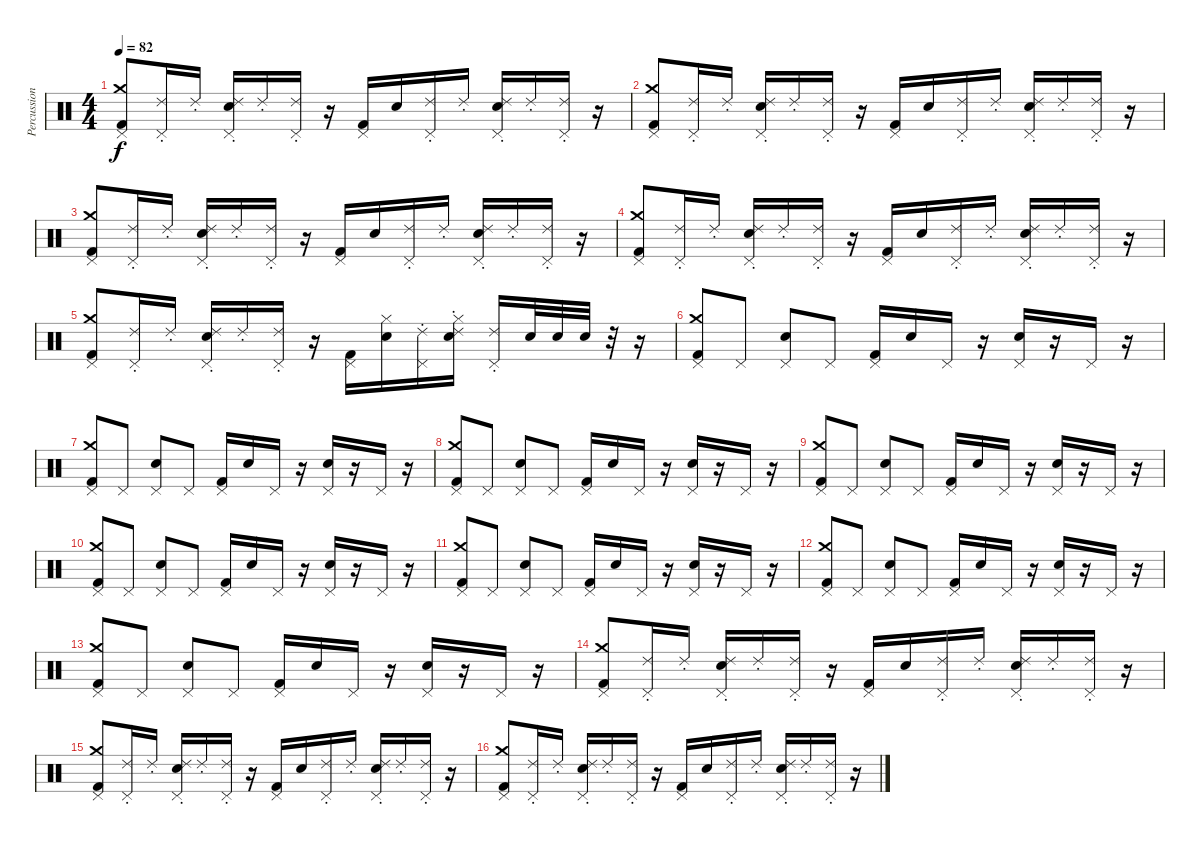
\track ("Percussion" "Percussion") {instrument percussion}
\staff {score}
\articulation defaults
\ts (4 4)
\tempo 82
\clef neutral
\ks c
("Pedal Hi-Hat (hit)" "Crash medium (hit)" "Kick (hit) 2").8{dy f} ("Pedal Hi-Hat (hit)" "Ride (choke) 2").16 "Ride (choke) 2".16 ("Pedal Hi-Hat (hit)" "Electric Snare (hit)" "Ride (choke) 2").16 "Ride (choke) 2".16 ("Pedal Hi-Hat (hit)" "Ride (choke) 2").16 r.16 ("Pedal Hi-Hat (hit)" "Kick (hit) 2").16 "Electric Snare (hit)".16 ("Pedal Hi-Hat (hit)" "Ride (choke) 2").16 "Ride (choke) 2".16 ("Pedal Hi-Hat (hit)" "Electric Snare (hit)" "Ride (choke) 2").16 "Ride (choke) 2".16 ("Pedal Hi-Hat (hit)" "Ride (choke) 2").16 r.16 |
("Pedal Hi-Hat (hit)" "Crash medium (hit)" "Kick (hit) 2").8 ("Pedal Hi-Hat (hit)" "Ride (choke) 2").16 "Ride (choke) 2".16 ("Pedal Hi-Hat (hit)" "Electric Snare (hit)" "Ride (choke) 2").16 "Ride (choke) 2".16 ("Pedal Hi-Hat (hit)" "Ride (choke) 2").16 r.16 ("Pedal Hi-Hat (hit)" "Kick (hit) 2").16 "Electric Snare (hit)".16 ("Pedal Hi-Hat (hit)" "Ride (choke) 2").16 "Ride (choke) 2".16 ("Pedal Hi-Hat (hit)" "Electric Snare (hit)" "Ride (choke) 2").16 "Ride (choke) 2".16 ("Pedal Hi-Hat (hit)" "Ride (choke) 2").16 r.16 |
("Pedal Hi-Hat (hit)" "Crash medium (hit)" "Kick (hit) 2").8 ("Pedal Hi-Hat (hit)" "Ride (choke) 2").16 "Ride (choke) 2".16 ("Pedal Hi-Hat (hit)" "Electric Snare (hit)" "Ride (choke) 2").16 "Ride (choke) 2".16 ("Pedal Hi-Hat (hit)" "Ride (choke) 2").16 r.16 ("Pedal Hi-Hat (hit)" "Kick (hit) 2").16 "Electric Snare (hit)".16 ("Pedal Hi-Hat (hit)" "Ride (choke) 2").16 "Ride (choke) 2".16 ("Pedal Hi-Hat (hit)" "Electric Snare (hit)" "Ride (choke) 2").16 "Ride (choke) 2".16 ("Pedal Hi-Hat (hit)" "Ride (choke) 2").16 r.16 |
("Pedal Hi-Hat (hit)" "Crash medium (hit)" "Kick (hit) 2").8 ("Pedal Hi-Hat (hit)" "Ride (choke) 2").16 "Ride (choke) 2".16 ("Pedal Hi-Hat (hit)" "Electric Snare (hit)" "Ride (choke) 2").16 "Ride (choke) 2".16 ("Pedal Hi-Hat (hit)" "Ride (choke) 2").16 r.16 ("Pedal Hi-Hat (hit)" "Kick (hit) 2").16 "Electric Snare (hit)".16 ("Pedal Hi-Hat (hit)" "Ride (choke) 2").16 "Ride (choke) 2".16 ("Pedal Hi-Hat (hit)" "Electric Snare (hit)" "Ride (choke) 2").16 "Ride (choke) 2".16 ("Pedal Hi-Hat (hit)" "Ride (choke) 2").16 r.16 |
("Pedal Hi-Hat (hit)" "Crash medium (hit)" "Kick (hit) 2").8 ("Pedal Hi-Hat (hit)" "Ride (choke) 2").16 "Ride (choke) 2".16 ("Pedal Hi-Hat (hit)" "Electric Snare (hit)" "Ride (choke) 2").16 "Ride (choke) 2".16 ("Pedal Hi-Hat (hit)" "Ride (choke) 2").16 r.16 ("Pedal Hi-Hat (hit)" "Kick (hit) 2").16 ("Hi-Hat (closed)" "Electric Snare (hit)").16 ("Pedal Hi-Hat (hit)" "Ride (choke) 2").16 ("Hi-Hat (closed)" "Electric Snare (hit)" "Ride (choke) 2").16 ("Pedal Hi-Hat (hit)" "Ride (choke) 2").16 "Electric Snare (hit)".32 "Electric Snare (hit)".32 "Electric Snare (hit)".32 r.32 r.16 |
("Pedal Hi-Hat (hit)" "Crash medium (hit)" "Kick (hit) 2").8 "Pedal Hi-Hat (hit)".8 ("Pedal Hi-Hat (hit)" "Electric Snare (hit)").8 "Pedal Hi-Hat (hit)".8 ("Pedal Hi-Hat (hit)" "Kick (hit) 2").16 "Electric Snare (hit)".16 "Pedal Hi-Hat (hit)".16 r.16 ("Pedal Hi-Hat (hit)" "Electric Snare (hit)").16 r.16 "Pedal Hi-Hat (hit)".16 r.16 |
("Pedal Hi-Hat (hit)" "Crash medium (hit)" "Kick (hit) 2").8 "Pedal Hi-Hat (hit)".8 ("Pedal Hi-Hat (hit)" "Electric Snare (hit)").8 "Pedal Hi-Hat (hit)".8 ("Pedal Hi-Hat (hit)" "Kick (hit) 2").16 "Electric Snare (hit)".16 "Pedal Hi-Hat (hit)".16 r.16 ("Pedal Hi-Hat (hit)" "Electric Snare (hit)").16 r.16 "Pedal Hi-Hat (hit)".16 r.16 |
("Pedal Hi-Hat (hit)" "Crash medium (hit)" "Kick (hit) 2").8 "Pedal Hi-Hat (hit)".8 ("Pedal Hi-Hat (hit)" "Electric Snare (hit)").8 "Pedal Hi-Hat (hit)".8 ("Pedal Hi-Hat (hit)" "Kick (hit) 2").16 "Electric Snare (hit)".16 "Pedal Hi-Hat (hit)".16 r.16 ("Pedal Hi-Hat (hit)" "Electric Snare (hit)").16 r.16 "Pedal Hi-Hat (hit)".16 r.16 |
("Pedal Hi-Hat (hit)" "Crash medium (hit)" "Kick (hit) 2").8 "Pedal Hi-Hat (hit)".8 ("Pedal Hi-Hat (hit)" "Electric Snare (hit)").8 "Pedal Hi-Hat (hit)".8 ("Pedal Hi-Hat (hit)" "Kick (hit) 2").16 "Electric Snare (hit)".16 "Pedal Hi-Hat (hit)".16 r.16 ("Pedal Hi-Hat (hit)" "Electric Snare (hit)").16 r.16 "Pedal Hi-Hat (hit)".16 r.16 |
("Pedal Hi-Hat (hit)" "Crash medium (hit)" "Kick (hit) 2").8 "Pedal Hi-Hat (hit)".8 ("Pedal Hi-Hat (hit)" "Electric Snare (hit)").8 "Pedal Hi-Hat (hit)".8 ("Pedal Hi-Hat (hit)" "Kick (hit) 2").16 "Electric Snare (hit)".16 "Pedal Hi-Hat (hit)".16 r.16 ("Pedal Hi-Hat (hit)" "Electric Snare (hit)").16 r.16 "Pedal Hi-Hat (hit)".16 r.16 |
("Pedal Hi-Hat (hit)" "Crash medium (hit)" "Kick (hit) 2").8 "Pedal Hi-Hat (hit)".8 ("Pedal Hi-Hat (hit)" "Electric Snare (hit)").8 "Pedal Hi-Hat (hit)".8 ("Pedal Hi-Hat (hit)" "Kick (hit) 2").16 "Electric Snare (hit)".16 "Pedal Hi-Hat (hit)".16 r.16 ("Pedal Hi-Hat (hit)" "Electric Snare (hit)").16 r.16 "Pedal Hi-Hat (hit)".16 r.16 |
("Pedal Hi-Hat (hit)" "Crash medium (hit)" "Kick (hit) 2").8 "Pedal Hi-Hat (hit)".8 ("Pedal Hi-Hat (hit)" "Electric Snare (hit)").8 "Pedal Hi-Hat (hit)".8 ("Pedal Hi-Hat (hit)" "Kick (hit) 2").16 "Electric Snare (hit)".16 "Pedal Hi-Hat (hit)".16 r.16 ("Pedal Hi-Hat (hit)" "Electric Snare (hit)").16 r.16 "Pedal Hi-Hat (hit)".16 r.16 |
("Pedal Hi-Hat (hit)" "Crash medium (hit)" "Kick (hit) 2").8 "Pedal Hi-Hat (hit)".8 ("Pedal Hi-Hat (hit)" "Electric Snare (hit)").8 "Pedal Hi-Hat (hit)".8 ("Pedal Hi-Hat (hit)" "Kick (hit) 2").16 "Electric Snare (hit)".16 "Pedal Hi-Hat (hit)".16 r.16 ("Pedal Hi-Hat (hit)" "Electric Snare (hit)").16 r.16 "Pedal Hi-Hat (hit)".16 r.16 |
("Pedal Hi-Hat (hit)" "Crash medium (hit)" "Kick (hit) 2").8 ("Pedal Hi-Hat (hit)" "Ride (choke) 2").16 "Ride (choke) 2".16 ("Pedal Hi-Hat (hit)" "Electric Snare (hit)" "Ride (choke) 2").16 "Ride (choke) 2".16 ("Pedal Hi-Hat (hit)" "Ride (choke) 2").16 r.16 ("Pedal Hi-Hat (hit)" "Kick (hit) 2").16 "Electric Snare (hit)".16 ("Pedal Hi-Hat (hit)" "Ride (choke) 2").16 "Ride (choke) 2".16 ("Pedal Hi-Hat (hit)" "Electric Snare (hit)" "Ride (choke) 2").16 "Ride (choke) 2".16 ("Pedal Hi-Hat (hit)" "Ride (choke) 2").16 r.16 |
("Pedal Hi-Hat (hit)" "Crash medium (hit)" "Kick (hit) 2").8 ("Pedal Hi-Hat (hit)" "Ride (choke) 2").16 "Ride (choke) 2".16 ("Pedal Hi-Hat (hit)" "Electric Snare (hit)" "Ride (choke) 2").16 "Ride (choke) 2".16 ("Pedal Hi-Hat (hit)" "Ride (choke) 2").16 r.16 ("Pedal Hi-Hat (hit)" "Kick (hit) 2").16 "Electric Snare (hit)".16 ("Pedal Hi-Hat (hit)" "Ride (choke) 2").16 "Ride (choke) 2".16 ("Pedal Hi-Hat (hit)" "Electric Snare (hit)" "Ride (choke) 2").16 "Ride (choke) 2".16 ("Pedal Hi-Hat (hit)" "Ride (choke) 2").16 r.16 |
("Pedal Hi-Hat (hit)" "Crash medium (hit)" "Kick (hit) 2").8 ("Pedal Hi-Hat (hit)" "Ride (choke) 2").16 "Ride (choke) 2".16 ("Pedal Hi-Hat (hit)" "Electric Snare (hit)" "Ride (choke) 2").16 "Ride (choke) 2".16 ("Pedal Hi-Hat (hit)" "Ride (choke) 2").16 r.16 ("Pedal Hi-Hat (hit)" "Kick (hit) 2").16 "Electric Snare (hit)".16 ("Pedal Hi-Hat (hit)" "Ride (choke) 2").16 "Ride (choke) 2".16 ("Pedal Hi-Hat (hit)" "Electric Snare (hit)" "Ride (choke) 2").16 "Ride (choke) 2".16 ("Pedal Hi-Hat (hit)" "Ride (choke) 2").16 r.16
